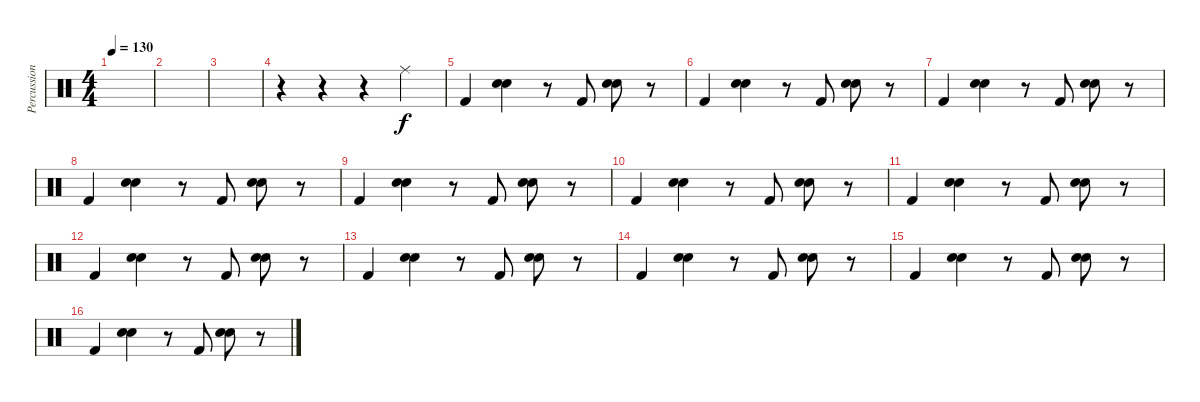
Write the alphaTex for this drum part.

\track ("Percussions" "Percussion") {instrument percussion}
\staff {score}
\articulation defaults
\ts (4 4)
\tempo 130
\clef neutral
\ks c
|
|
|
r.4 r.4 r.4 "Ride (middle)".4 |
"Kick (hit) 2".4 ("Electric Snare (hit)" "Electric Snare (hit)").4 r.8 "Kick (hit) 2".8 ("Electric Snare (hit)" "Electric Snare (hit)").8 r.8 |
"Kick (hit) 2".4 ("Electric Snare (hit)" "Electric Snare (hit)").4 r.8 "Kick (hit) 2".8 ("Electric Snare (hit)" "Electric Snare (hit)").8 r.8 |
"Kick (hit) 2".4 ("Electric Snare (hit)" "Electric Snare (hit)").4 r.8 "Kick (hit) 2".8 ("Electric Snare (hit)" "Electric Snare (hit)").8 r.8 |
"Kick (hit) 2".4 ("Electric Snare (hit)" "Electric Snare (hit)").4 r.8 "Kick (hit) 2".8 ("Electric Snare (hit)" "Electric Snare (hit)").8 r.8 |
"Kick (hit) 2".4 ("Electric Snare (hit)" "Electric Snare (hit)").4 r.8 "Kick (hit) 2".8 ("Electric Snare (hit)" "Electric Snare (hit)").8 r.8 |
"Kick (hit) 2".4 ("Electric Snare (hit)" "Electric Snare (hit)").4 r.8 "Kick (hit) 2".8 ("Electric Snare (hit)" "Electric Snare (hit)").8 r.8 |
"Kick (hit) 2".4 ("Electric Snare (hit)" "Electric Snare (hit)").4 r.8 "Kick (hit) 2".8 ("Electric Snare (hit)" "Electric Snare (hit)").8 r.8 |
"Kick (hit) 2".4 ("Electric Snare (hit)" "Electric Snare (hit)").4 r.8 "Kick (hit) 2".8 ("Electric Snare (hit)" "Electric Snare (hit)").8 r.8 |
"Kick (hit) 2".4 ("Electric Snare (hit)" "Electric Snare (hit)").4 r.8 "Kick (hit) 2".8 ("Electric Snare (hit)" "Electric Snare (hit)").8 r.8 |
"Kick (hit) 2".4 ("Electric Snare (hit)" "Electric Snare (hit)").4 r.8 "Kick (hit) 2".8 ("Electric Snare (hit)" "Electric Snare (hit)").8 r.8 |
"Kick (hit) 2".4 ("Electric Snare (hit)" "Electric Snare (hit)").4 r.8 "Kick (hit) 2".8 ("Electric Snare (hit)" "Electric Snare (hit)").8 r.8 |
"Kick (hit) 2".4 ("Electric Snare (hit)" "Electric Snare (hit)").4 r.8 "Kick (hit) 2".8 ("Electric Snare (hit)" "Electric Snare (hit)").8 r.8
